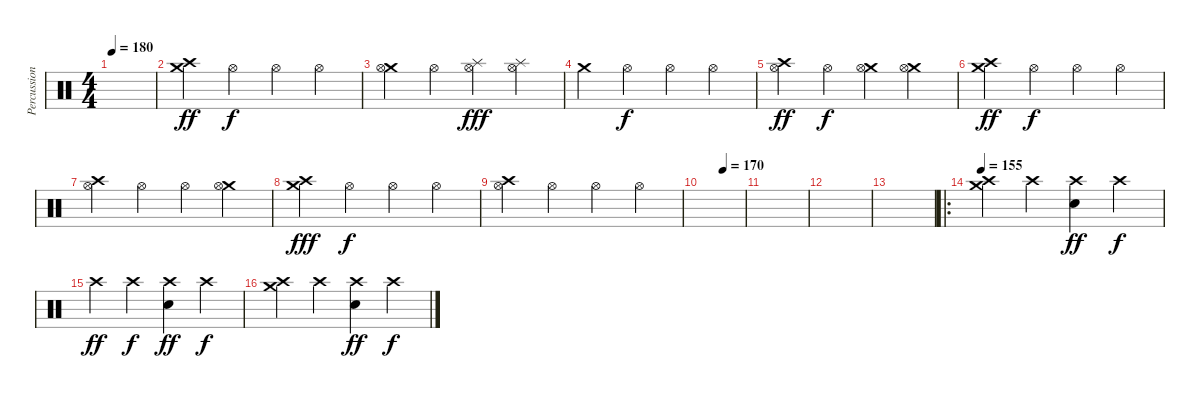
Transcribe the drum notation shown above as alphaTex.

\track ("Percussion (Francisco Izquierdo)" "Percussion") {instrument percussion}
\staff {score}
\articulation defaults
\ts (4 4)
\tempo 180
\clef neutral
\ks c
|
("Crash high (hit)" "Crash medium (hit)").4{dy ff} "Hi-Hat (open)".4{dy f} "Hi-Hat (open)".4 "Hi-Hat (open)".4 |
("Crash medium (hit)" "Hi-Hat (open)").4 "Hi-Hat (open)".4 ("Splash (hit)" "Hi-Hat (open)").4{dy fff} ("Splash (hit)" "Hi-Hat (open)").4 |
"Crash medium (hit)".4 "Hi-Hat (open)".4{dy f} "Hi-Hat (open)".4 "Hi-Hat (open)".4 |
("Crash high (hit)" "Hi-Hat (open)").4{dy ff} "Hi-Hat (open)".4{dy f} ("Crash medium (hit)" "Hi-Hat (open)").4 ("Crash medium (hit)" "Hi-Hat (open)").4 |
("Crash high (hit)" "Crash medium (hit)").4{dy ff} "Hi-Hat (open)".4{dy f} "Hi-Hat (open)".4 "Hi-Hat (open)".4 |
("Crash high (hit)" "Hi-Hat (open)").4 "Hi-Hat (open)".4 "Hi-Hat (open)".4 ("Crash medium (hit)" "Hi-Hat (open)").4 |
("Crash medium (hit)" "Crash high (hit)").4{dy fff} "Hi-Hat (open)".4{dy f} "Hi-Hat (open)".4 "Hi-Hat (open)".4 |
("Crash high (hit)" "Hi-Hat (open)").4 "Hi-Hat (open)".4 "Hi-Hat (open)".4 "Hi-Hat (open)".4 |
\tempo (170 0.5)
|
|
|
|
\ro
\tempo 155
("Crash high (hit)" "Crash medium (hit)").4 "Crash high (hit)".4 ("Crash high (hit)" "Electric Snare (hit)").4{dy ff} "Crash high (hit)".4{dy f} |
"Crash high (hit)".4{dy ff} "Crash high (hit)".4{dy f} ("Crash high (hit)" "Electric Snare (hit)").4{dy ff} "Crash high (hit)".4{dy f} |
("Crash high (hit)" "Crash medium (hit)").4 "Crash high (hit)".4 ("Crash high (hit)" "Electric Snare (hit)").4{dy ff} "Crash high (hit)".4{dy f}
